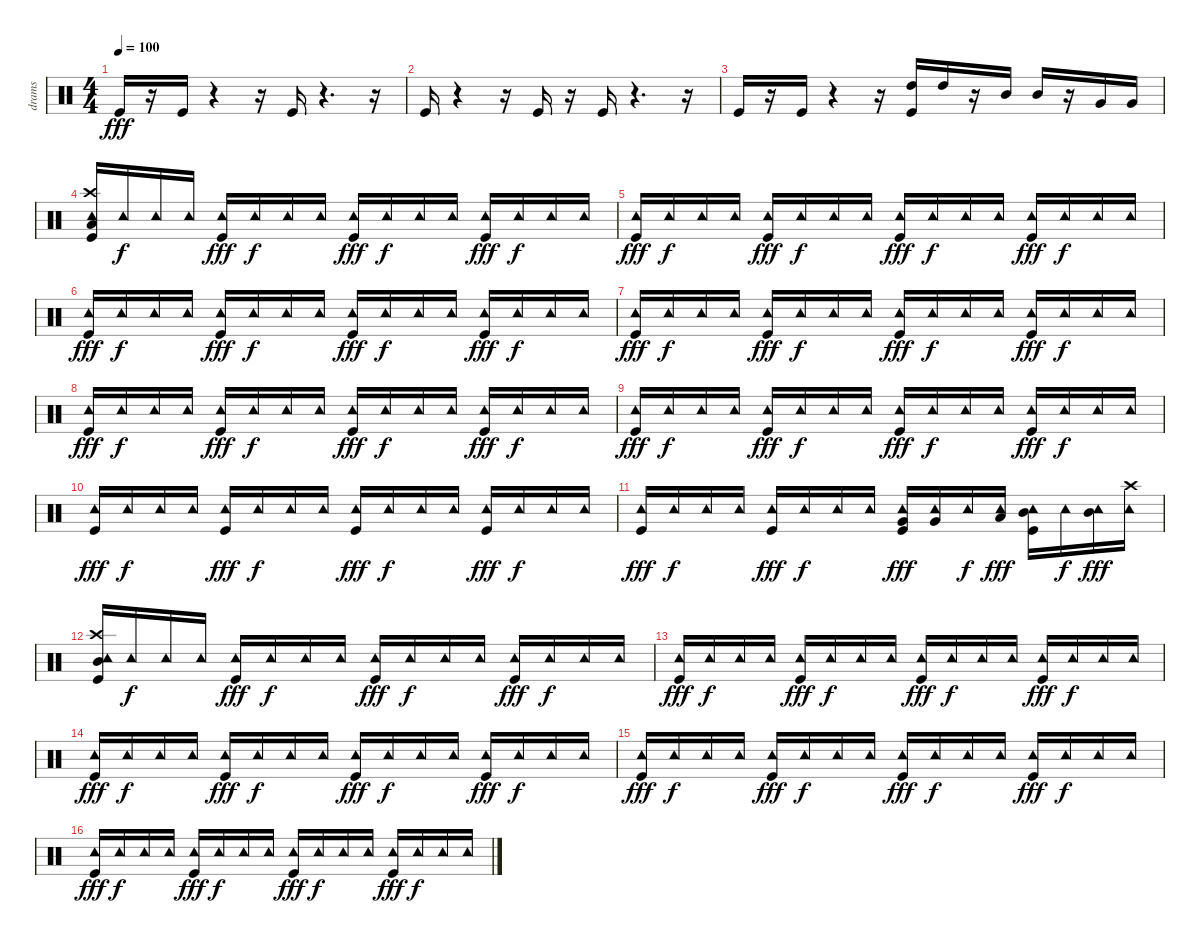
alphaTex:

\track ("drams" "drams") {instrument percussion}
\staff {score}
\articulation defaults
\ts (4 4)
\tempo 100
\clef neutral
\ks c "Kick (hit)".16{dy fff}
r.16 "Kick (hit)".16 r.4 r.16 "Kick (hit)".16 r.4{d} r.16 |
"Kick (hit)".16 r.4 r.16 "Kick (hit)".16 r.16 "Kick (hit)".16 r.4{d} r.16 |
"Kick (hit)".16 r.16 "Kick (hit)".16 r.4 r.16 ("Kick (hit)" "High Tom (hit)").16 "High Tom (hit)".16 r.16 "Mid Tom (hit)".16 "Mid Tom (hit)".16 r.16 "Very Low Tom (hit)".16 "Very Low Tom (hit)".16 |
("Kick (hit)" "Low Floor Tom (hit)" "Crash high (hit)" "Tambourine (hit)").16 "Tambourine (hit)".16{dy f} "Tambourine (hit)".16 "Tambourine (hit)".16 ("Kick (hit)" "Tambourine (hit)").16{dy fff} "Tambourine (hit)".16{dy f} "Tambourine (hit)".16 "Tambourine (hit)".16 ("Kick (hit)" "Tambourine (hit)").16{dy fff} "Tambourine (hit)".16{dy f} "Tambourine (hit)".16 "Tambourine (hit)".16 ("Kick (hit)" "Tambourine (hit)").16{dy fff} "Tambourine (hit)".16{dy f} "Tambourine (hit)".16 "Tambourine (hit)".16 |
("Kick (hit)" "Tambourine (hit)").16{dy fff} "Tambourine (hit)".16{dy f} "Tambourine (hit)".16 "Tambourine (hit)".16 ("Kick (hit)" "Tambourine (hit)").16{dy fff} "Tambourine (hit)".16{dy f} "Tambourine (hit)".16 "Tambourine (hit)".16 ("Kick (hit)" "Tambourine (hit)").16{dy fff} "Tambourine (hit)".16{dy f} "Tambourine (hit)".16 "Tambourine (hit)".16 ("Kick (hit)" "Tambourine (hit)").16{dy fff} "Tambourine (hit)".16{dy f} "Tambourine (hit)".16 "Tambourine (hit)".16 |
("Kick (hit)" "Tambourine (hit)").16{dy fff} "Tambourine (hit)".16{dy f} "Tambourine (hit)".16 "Tambourine (hit)".16 ("Kick (hit)" "Tambourine (hit)").16{dy fff} "Tambourine (hit)".16{dy f} "Tambourine (hit)".16 "Tambourine (hit)".16 ("Kick (hit)" "Tambourine (hit)").16{dy fff} "Tambourine (hit)".16{dy f} "Tambourine (hit)".16 "Tambourine (hit)".16 ("Kick (hit)" "Tambourine (hit)").16{dy fff} "Tambourine (hit)".16{dy f} "Tambourine (hit)".16 "Tambourine (hit)".16 |
("Kick (hit)" "Tambourine (hit)").16{dy fff} "Tambourine (hit)".16{dy f} "Tambourine (hit)".16 "Tambourine (hit)".16 ("Kick (hit)" "Tambourine (hit)").16{dy fff} "Tambourine (hit)".16{dy f} "Tambourine (hit)".16 "Tambourine (hit)".16 ("Kick (hit)" "Tambourine (hit)").16{dy fff} "Tambourine (hit)".16{dy f} "Tambourine (hit)".16 "Tambourine (hit)".16 ("Kick (hit)" "Tambourine (hit)").16{dy fff} "Tambourine (hit)".16{dy f} "Tambourine (hit)".16 "Tambourine (hit)".16 |
("Kick (hit)" "Tambourine (hit)").16{dy fff} "Tambourine (hit)".16{dy f} "Tambourine (hit)".16 "Tambourine (hit)".16 ("Kick (hit)" "Tambourine (hit)").16{dy fff} "Tambourine (hit)".16{dy f} "Tambourine (hit)".16 "Tambourine (hit)".16 ("Kick (hit)" "Tambourine (hit)").16{dy fff} "Tambourine (hit)".16{dy f} "Tambourine (hit)".16 "Tambourine (hit)".16 ("Kick (hit)" "Tambourine (hit)").16{dy fff} "Tambourine (hit)".16{dy f} "Tambourine (hit)".16 "Tambourine (hit)".16 |
("Kick (hit)" "Tambourine (hit)").16{dy fff} "Tambourine (hit)".16{dy f} "Tambourine (hit)".16 "Tambourine (hit)".16 ("Kick (hit)" "Tambourine (hit)").16{dy fff} "Tambourine (hit)".16{dy f} "Tambourine (hit)".16 "Tambourine (hit)".16 ("Kick (hit)" "Tambourine (hit)").16{dy fff} "Tambourine (hit)".16{dy f} "Tambourine (hit)".16 "Tambourine (hit)".16 ("Kick (hit)" "Tambourine (hit)").16{dy fff} "Tambourine (hit)".16{dy f} "Tambourine (hit)".16 "Tambourine (hit)".16 |
("Kick (hit)" "Tambourine (hit)").16{dy fff} "Tambourine (hit)".16{dy f} "Tambourine (hit)".16 "Tambourine (hit)".16 ("Kick (hit)" "Tambourine (hit)").16{dy fff} "Tambourine (hit)".16{dy f} "Tambourine (hit)".16 "Tambourine (hit)".16 ("Kick (hit)" "Tambourine (hit)").16{dy fff} "Tambourine (hit)".16{dy f} "Tambourine (hit)".16 "Tambourine (hit)".16 ("Kick (hit)" "Tambourine (hit)").16{dy fff} "Tambourine (hit)".16{dy f} "Tambourine (hit)".16 "Tambourine (hit)".16 |
("Kick (hit)" "Tambourine (hit)").16{dy fff} "Tambourine (hit)".16{dy f} "Tambourine (hit)".16 "Tambourine (hit)".16 ("Kick (hit)" "Tambourine (hit)").16{dy fff} "Tambourine (hit)".16{dy f} "Tambourine (hit)".16 "Tambourine (hit)".16 ("Kick (hit)" "Very Low Tom (hit)" "Tambourine (hit)").16{dy fff} ("Very Low Tom (hit)" "Tambourine (hit)").16 "Tambourine (hit)".16{dy f} ("Low Tom (hit)" "Tambourine (hit)").16{dy fff} ("Kick (hit)" "Mid Tom (hit)" "Tambourine (hit)").16 "Tambourine (hit)".16{dy f} ("Mid Tom (hit)" "Tambourine (hit)").16{dy fff} ("Crash high (hit)" "Tambourine (hit)").16 |
("Kick (hit)" "Mid Tom (hit)" "Crash high (hit)" "Tambourine (hit)").16 "Tambourine (hit)".16{dy f} "Tambourine (hit)".16 "Tambourine (hit)".16 ("Kick (hit)" "Tambourine (hit)").16{dy fff} "Tambourine (hit)".16{dy f} "Tambourine (hit)".16 "Tambourine (hit)".16 ("Kick (hit)" "Tambourine (hit)").16{dy fff} "Tambourine (hit)".16{dy f} "Tambourine (hit)".16 "Tambourine (hit)".16 ("Kick (hit)" "Tambourine (hit)").16{dy fff} "Tambourine (hit)".16{dy f} "Tambourine (hit)".16 "Tambourine (hit)".16 |
("Kick (hit)" "Tambourine (hit)").16{dy fff} "Tambourine (hit)".16{dy f} "Tambourine (hit)".16 "Tambourine (hit)".16 ("Kick (hit)" "Tambourine (hit)").16{dy fff} "Tambourine (hit)".16{dy f} "Tambourine (hit)".16 "Tambourine (hit)".16 ("Kick (hit)" "Tambourine (hit)").16{dy fff} "Tambourine (hit)".16{dy f} "Tambourine (hit)".16 "Tambourine (hit)".16 ("Kick (hit)" "Tambourine (hit)").16{dy fff} "Tambourine (hit)".16{dy f} "Tambourine (hit)".16 "Tambourine (hit)".16 |
("Kick (hit)" "Tambourine (hit)").16{dy fff} "Tambourine (hit)".16{dy f} "Tambourine (hit)".16 "Tambourine (hit)".16 ("Kick (hit)" "Tambourine (hit)").16{dy fff} "Tambourine (hit)".16{dy f} "Tambourine (hit)".16 "Tambourine (hit)".16 ("Kick (hit)" "Tambourine (hit)").16{dy fff} "Tambourine (hit)".16{dy f} "Tambourine (hit)".16 "Tambourine (hit)".16 ("Kick (hit)" "Tambourine (hit)").16{dy fff} "Tambourine (hit)".16{dy f} "Tambourine (hit)".16 "Tambourine (hit)".16 |
("Kick (hit)" "Tambourine (hit)").16{dy fff} "Tambourine (hit)".16{dy f} "Tambourine (hit)".16 "Tambourine (hit)".16 ("Kick (hit)" "Tambourine (hit)").16{dy fff} "Tambourine (hit)".16{dy f} "Tambourine (hit)".16 "Tambourine (hit)".16 ("Kick (hit)" "Tambourine (hit)").16{dy fff} "Tambourine (hit)".16{dy f} "Tambourine (hit)".16 "Tambourine (hit)".16 ("Kick (hit)" "Tambourine (hit)").16{dy fff} "Tambourine (hit)".16{dy f} "Tambourine (hit)".16 "Tambourine (hit)".16 |
("Kick (hit)" "Tambourine (hit)").16{dy fff} "Tambourine (hit)".16{dy f} "Tambourine (hit)".16 "Tambourine (hit)".16 ("Kick (hit)" "Tambourine (hit)").16{dy fff} "Tambourine (hit)".16{dy f} "Tambourine (hit)".16 "Tambourine (hit)".16 ("Kick (hit)" "Tambourine (hit)").16{dy fff} "Tambourine (hit)".16{dy f} "Tambourine (hit)".16 "Tambourine (hit)".16 ("Kick (hit)" "Tambourine (hit)").16{dy fff} "Tambourine (hit)".16{dy f} "Tambourine (hit)".16 "Tambourine (hit)".16
